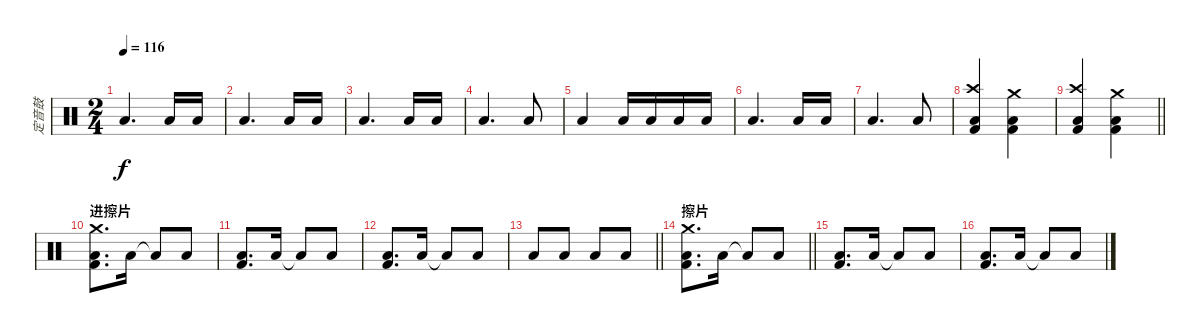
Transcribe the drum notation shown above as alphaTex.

\track ("定音鼓" "定音鼓") {instrument percussion}
\staff {score}
\articulation defaults
\ts (2 4)
\tempo 116
\clef neutral
\ks c "Low Floor Tom (hit)".4{d dy f} "Low Floor Tom (hit)".16 "Low Floor Tom (hit)".16
|
"Low Floor Tom (hit)".4{d} "Low Floor Tom (hit)".16 "Low Floor Tom (hit)".16 |
"Low Floor Tom (hit)".4{d} "Low Floor Tom (hit)".16 "Low Floor Tom (hit)".16 |
"Low Floor Tom (hit)".4{d} "Low Floor Tom (hit)".8 |
"Low Floor Tom (hit)".4 "Low Floor Tom (hit)".16 "Low Floor Tom (hit)".16 "Low Floor Tom (hit)".16 "Low Floor Tom (hit)".16 |
"Low Floor Tom (hit)".4{d} "Low Floor Tom (hit)".16 "Low Floor Tom (hit)".16 |
"Low Floor Tom (hit)".4{d} "Low Floor Tom (hit)".8 |
("Crash high (hit)" "Low Floor Tom (hit)" "Kick (hit) 2").4 ("Crash medium (hit)" "Low Floor Tom (hit)" "Kick (hit) 2").4 |
\barLineRight lightlight
("Crash high (hit)" "Low Floor Tom (hit)" "Kick (hit) 2").4 ("Crash medium (hit)" "Low Floor Tom (hit)" "Kick (hit) 2").4 |
\section ("" "进擦片")
("Crash medium (hit)" "Low Floor Tom (hit)" "Kick (hit) 2").8{d} "Low Floor Tom (hit)".16 "Low Floor Tom (hit)"{t}.8 "Low Floor Tom (hit)".8 |
("Low Floor Tom (hit)" "Kick (hit) 2").8{d} "Low Floor Tom (hit)".16 "Low Floor Tom (hit)"{t}.8 "Low Floor Tom (hit)".8 |
("Low Floor Tom (hit)" "Kick (hit) 2").8{d} "Low Floor Tom (hit)".16 "Low Floor Tom (hit)"{t}.8 "Low Floor Tom (hit)".8 |
\barLineRight lightlight "Low Floor Tom (hit)".8 "Low Floor Tom (hit)".8 "Low Floor Tom (hit)".8 "Low Floor Tom (hit)".8
|
\section ("" "擦片")
\barLineRight lightlight
("Crash medium (hit)" "Low Floor Tom (hit)" "Kick (hit) 2").8{d} "Low Floor Tom (hit)".16 "Low Floor Tom (hit)"{t}.8 "Low Floor Tom (hit)".8 |
("Low Floor Tom (hit)" "Kick (hit) 2").8{d} "Low Floor Tom (hit)".16 "Low Floor Tom (hit)"{t}.8 "Low Floor Tom (hit)".8 |
("Low Floor Tom (hit)" "Kick (hit) 2").8{d} "Low Floor Tom (hit)".16 "Low Floor Tom (hit)"{t}.8 "Low Floor Tom (hit)".8
